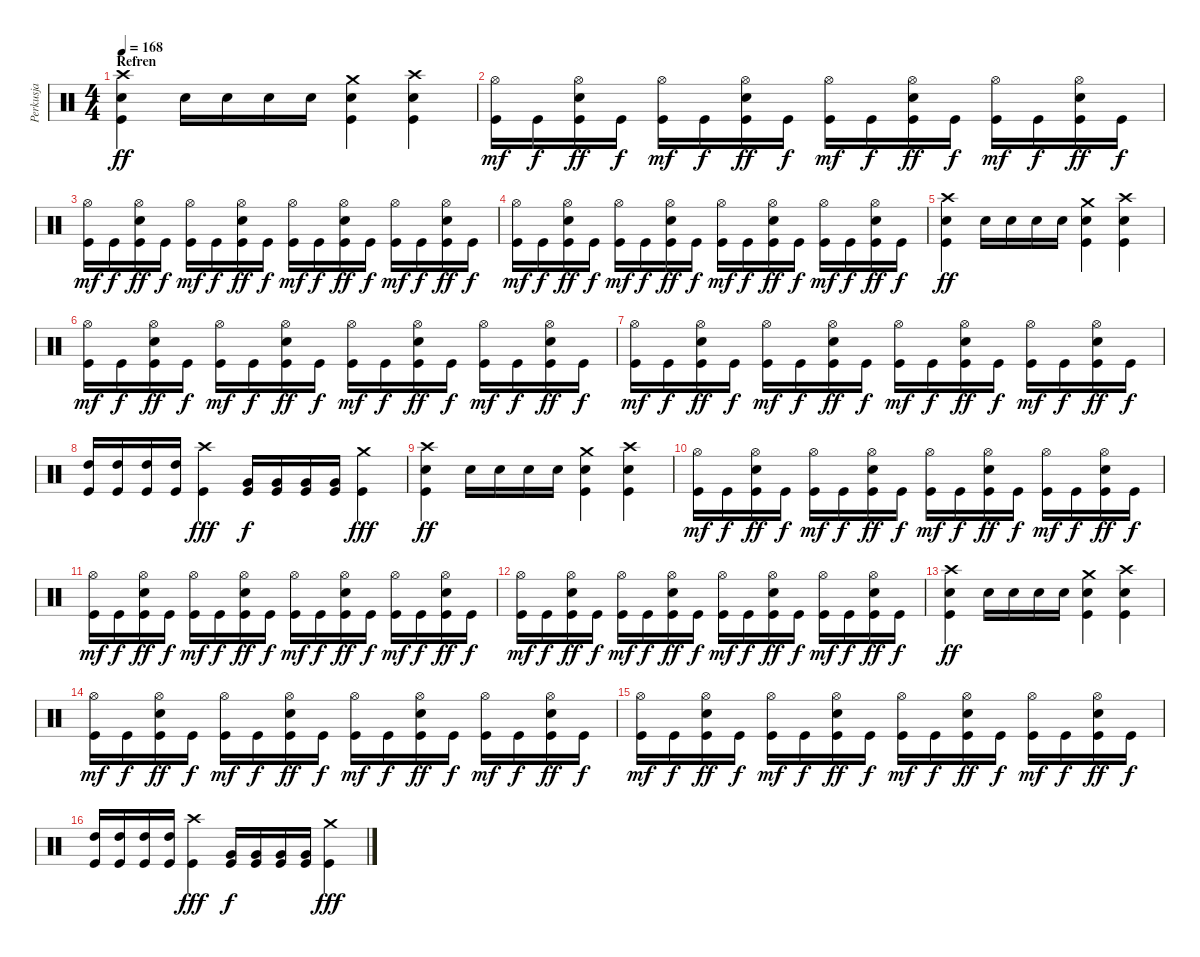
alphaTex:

\track ("Perkusja" "Perkusja") {instrument percussion}
\staff {score}
\articulation defaults
\ts (4 4)
\section ("" "Refren")
\tempo 168
\clef neutral
\ks c
("Crash high (hit)" "Snare (hit) 2" "Kick (hit)").4{dy ff} "Snare (hit) 2".16 "Snare (hit) 2".16 "Snare (hit) 2".16 "Snare (hit) 2".16 ("Crash medium (hit)" "Snare (hit) 2" "Kick (hit)").4 ("Crash high (hit)" "Snare (hit) 2" "Kick (hit)").4 |
("Hi-Hat (open)" "Kick (hit)").16{dy mf} "Kick (hit)".16{dy f} ("Hi-Hat (open)" "Snare (hit) 2" "Kick (hit)").16{dy ff} "Kick (hit)".16{dy f} ("Hi-Hat (open)" "Kick (hit)").16{dy mf} "Kick (hit)".16{dy f} ("Hi-Hat (open)" "Snare (hit) 2" "Kick (hit)").16{dy ff} "Kick (hit)".16{dy f} ("Hi-Hat (open)" "Kick (hit)").16{dy mf} "Kick (hit)".16{dy f} ("Hi-Hat (open)" "Snare (hit) 2" "Kick (hit)").16{dy ff} "Kick (hit)".16{dy f} ("Hi-Hat (open)" "Kick (hit)").16{dy mf} "Kick (hit)".16{dy f} ("Hi-Hat (open)" "Snare (hit) 2" "Kick (hit)").16{dy ff} "Kick (hit)".16{dy f} |
("Hi-Hat (open)" "Kick (hit)").16{dy mf} "Kick (hit)".16{dy f} ("Hi-Hat (open)" "Snare (hit) 2" "Kick (hit)").16{dy ff} "Kick (hit)".16{dy f} ("Hi-Hat (open)" "Kick (hit)").16{dy mf} "Kick (hit)".16{dy f} ("Hi-Hat (open)" "Snare (hit) 2" "Kick (hit)").16{dy ff} "Kick (hit)".16{dy f} ("Hi-Hat (open)" "Kick (hit)").16{dy mf} "Kick (hit)".16{dy f} ("Hi-Hat (open)" "Snare (hit) 2" "Kick (hit)").16{dy ff} "Kick (hit)".16{dy f} ("Hi-Hat (open)" "Kick (hit)").16{dy mf} "Kick (hit)".16{dy f} ("Hi-Hat (open)" "Snare (hit) 2" "Kick (hit)").16{dy ff} "Kick (hit)".16{dy f} |
("Hi-Hat (open)" "Kick (hit)").16{dy mf} "Kick (hit)".16{dy f} ("Hi-Hat (open)" "Snare (hit) 2" "Kick (hit)").16{dy ff} "Kick (hit)".16{dy f} ("Hi-Hat (open)" "Kick (hit)").16{dy mf} "Kick (hit)".16{dy f} ("Hi-Hat (open)" "Snare (hit) 2" "Kick (hit)").16{dy ff} "Kick (hit)".16{dy f} ("Hi-Hat (open)" "Kick (hit)").16{dy mf} "Kick (hit)".16{dy f} ("Hi-Hat (open)" "Snare (hit) 2" "Kick (hit)").16{dy ff} "Kick (hit)".16{dy f} ("Hi-Hat (open)" "Kick (hit)").16{dy mf} "Kick (hit)".16{dy f} ("Hi-Hat (open)" "Snare (hit) 2" "Kick (hit)").16{dy ff} "Kick (hit)".16{dy f} |
("Crash high (hit)" "Snare (hit) 2" "Kick (hit)").4{dy ff} "Snare (hit) 2".16 "Snare (hit) 2".16 "Snare (hit) 2".16 "Snare (hit) 2".16 ("Crash medium (hit)" "Snare (hit) 2" "Kick (hit)").4 ("Crash high (hit)" "Snare (hit) 2" "Kick (hit)").4 |
("Hi-Hat (open)" "Kick (hit)").16{dy mf} "Kick (hit)".16{dy f} ("Hi-Hat (open)" "Snare (hit) 2" "Kick (hit)").16{dy ff} "Kick (hit)".16{dy f} ("Hi-Hat (open)" "Kick (hit)").16{dy mf} "Kick (hit)".16{dy f} ("Hi-Hat (open)" "Snare (hit) 2" "Kick (hit)").16{dy ff} "Kick (hit)".16{dy f} ("Hi-Hat (open)" "Kick (hit)").16{dy mf} "Kick (hit)".16{dy f} ("Hi-Hat (open)" "Snare (hit) 2" "Kick (hit)").16{dy ff} "Kick (hit)".16{dy f} ("Hi-Hat (open)" "Kick (hit)").16{dy mf} "Kick (hit)".16{dy f} ("Hi-Hat (open)" "Snare (hit) 2" "Kick (hit)").16{dy ff} "Kick (hit)".16{dy f} |
("Hi-Hat (open)" "Kick (hit)").16{dy mf} "Kick (hit)".16{dy f} ("Hi-Hat (open)" "Snare (hit) 2" "Kick (hit)").16{dy ff} "Kick (hit)".16{dy f} ("Hi-Hat (open)" "Kick (hit)").16{dy mf} "Kick (hit)".16{dy f} ("Hi-Hat (open)" "Snare (hit) 2" "Kick (hit)").16{dy ff} "Kick (hit)".16{dy f} ("Hi-Hat (open)" "Kick (hit)").16{dy mf} "Kick (hit)".16{dy f} ("Hi-Hat (open)" "Snare (hit) 2" "Kick (hit)").16{dy ff} "Kick (hit)".16{dy f} ("Hi-Hat (open)" "Kick (hit)").16{dy mf} "Kick (hit)".16{dy f} ("Hi-Hat (open)" "Snare (hit) 2" "Kick (hit)").16{dy ff} "Kick (hit)".16{dy f} |
("High Tom (hit)" "Kick (hit)").16 ("High Tom (hit)" "Kick (hit)").16 ("High Tom (hit)" "Kick (hit)").16 ("High Tom (hit)" "Kick (hit)").16 ("Crash high (hit)" "Kick (hit)").4{dy fff} ("Very Low Tom (hit)" "Kick (hit)").16{dy f} ("Very Low Tom (hit)" "Kick (hit)").16 ("Very Low Tom (hit)" "Kick (hit)").16 ("Very Low Tom (hit)" "Kick (hit)").16 ("Crash medium (hit)" "Kick (hit)").4{dy fff} |
("Crash high (hit)" "Snare (hit) 2" "Kick (hit)").4{dy ff} "Snare (hit) 2".16 "Snare (hit) 2".16 "Snare (hit) 2".16 "Snare (hit) 2".16 ("Crash medium (hit)" "Snare (hit) 2" "Kick (hit)").4 ("Crash high (hit)" "Snare (hit) 2" "Kick (hit)").4 |
("Hi-Hat (open)" "Kick (hit)").16{dy mf} "Kick (hit)".16{dy f} ("Hi-Hat (open)" "Snare (hit) 2" "Kick (hit)").16{dy ff} "Kick (hit)".16{dy f} ("Hi-Hat (open)" "Kick (hit)").16{dy mf} "Kick (hit)".16{dy f} ("Hi-Hat (open)" "Snare (hit) 2" "Kick (hit)").16{dy ff} "Kick (hit)".16{dy f} ("Hi-Hat (open)" "Kick (hit)").16{dy mf} "Kick (hit)".16{dy f} ("Hi-Hat (open)" "Snare (hit) 2" "Kick (hit)").16{dy ff} "Kick (hit)".16{dy f} ("Hi-Hat (open)" "Kick (hit)").16{dy mf} "Kick (hit)".16{dy f} ("Hi-Hat (open)" "Snare (hit) 2" "Kick (hit)").16{dy ff} "Kick (hit)".16{dy f} |
("Hi-Hat (open)" "Kick (hit)").16{dy mf} "Kick (hit)".16{dy f} ("Hi-Hat (open)" "Snare (hit) 2" "Kick (hit)").16{dy ff} "Kick (hit)".16{dy f} ("Hi-Hat (open)" "Kick (hit)").16{dy mf} "Kick (hit)".16{dy f} ("Hi-Hat (open)" "Snare (hit) 2" "Kick (hit)").16{dy ff} "Kick (hit)".16{dy f} ("Hi-Hat (open)" "Kick (hit)").16{dy mf} "Kick (hit)".16{dy f} ("Hi-Hat (open)" "Snare (hit) 2" "Kick (hit)").16{dy ff} "Kick (hit)".16{dy f} ("Hi-Hat (open)" "Kick (hit)").16{dy mf} "Kick (hit)".16{dy f} ("Hi-Hat (open)" "Snare (hit) 2" "Kick (hit)").16{dy ff} "Kick (hit)".16{dy f} |
("Hi-Hat (open)" "Kick (hit)").16{dy mf} "Kick (hit)".16{dy f} ("Hi-Hat (open)" "Snare (hit) 2" "Kick (hit)").16{dy ff} "Kick (hit)".16{dy f} ("Hi-Hat (open)" "Kick (hit)").16{dy mf} "Kick (hit)".16{dy f} ("Hi-Hat (open)" "Snare (hit) 2" "Kick (hit)").16{dy ff} "Kick (hit)".16{dy f} ("Hi-Hat (open)" "Kick (hit)").16{dy mf} "Kick (hit)".16{dy f} ("Hi-Hat (open)" "Snare (hit) 2" "Kick (hit)").16{dy ff} "Kick (hit)".16{dy f} ("Hi-Hat (open)" "Kick (hit)").16{dy mf} "Kick (hit)".16{dy f} ("Hi-Hat (open)" "Snare (hit) 2" "Kick (hit)").16{dy ff} "Kick (hit)".16{dy f} |
("Crash high (hit)" "Snare (hit) 2" "Kick (hit)").4{dy ff} "Snare (hit) 2".16 "Snare (hit) 2".16 "Snare (hit) 2".16 "Snare (hit) 2".16 ("Crash medium (hit)" "Snare (hit) 2" "Kick (hit)").4 ("Crash high (hit)" "Snare (hit) 2" "Kick (hit)").4 |
("Hi-Hat (open)" "Kick (hit)").16{dy mf} "Kick (hit)".16{dy f} ("Hi-Hat (open)" "Snare (hit) 2" "Kick (hit)").16{dy ff} "Kick (hit)".16{dy f} ("Hi-Hat (open)" "Kick (hit)").16{dy mf} "Kick (hit)".16{dy f} ("Hi-Hat (open)" "Snare (hit) 2" "Kick (hit)").16{dy ff} "Kick (hit)".16{dy f} ("Hi-Hat (open)" "Kick (hit)").16{dy mf} "Kick (hit)".16{dy f} ("Hi-Hat (open)" "Snare (hit) 2" "Kick (hit)").16{dy ff} "Kick (hit)".16{dy f} ("Hi-Hat (open)" "Kick (hit)").16{dy mf} "Kick (hit)".16{dy f} ("Hi-Hat (open)" "Snare (hit) 2" "Kick (hit)").16{dy ff} "Kick (hit)".16{dy f} |
("Hi-Hat (open)" "Kick (hit)").16{dy mf} "Kick (hit)".16{dy f} ("Hi-Hat (open)" "Snare (hit) 2" "Kick (hit)").16{dy ff} "Kick (hit)".16{dy f} ("Hi-Hat (open)" "Kick (hit)").16{dy mf} "Kick (hit)".16{dy f} ("Hi-Hat (open)" "Snare (hit) 2" "Kick (hit)").16{dy ff} "Kick (hit)".16{dy f} ("Hi-Hat (open)" "Kick (hit)").16{dy mf} "Kick (hit)".16{dy f} ("Hi-Hat (open)" "Snare (hit) 2" "Kick (hit)").16{dy ff} "Kick (hit)".16{dy f} ("Hi-Hat (open)" "Kick (hit)").16{dy mf} "Kick (hit)".16{dy f} ("Hi-Hat (open)" "Snare (hit) 2" "Kick (hit)").16{dy ff} "Kick (hit)".16{dy f} |
("High Tom (hit)" "Kick (hit)").16 ("High Tom (hit)" "Kick (hit)").16 ("High Tom (hit)" "Kick (hit)").16 ("High Tom (hit)" "Kick (hit)").16 ("Crash high (hit)" "Kick (hit)").4{dy fff} ("Very Low Tom (hit)" "Kick (hit)").16{dy f} ("Very Low Tom (hit)" "Kick (hit)").16 ("Very Low Tom (hit)" "Kick (hit)").16 ("Very Low Tom (hit)" "Kick (hit)").16 ("Crash medium (hit)" "Kick (hit)").4{dy fff}
